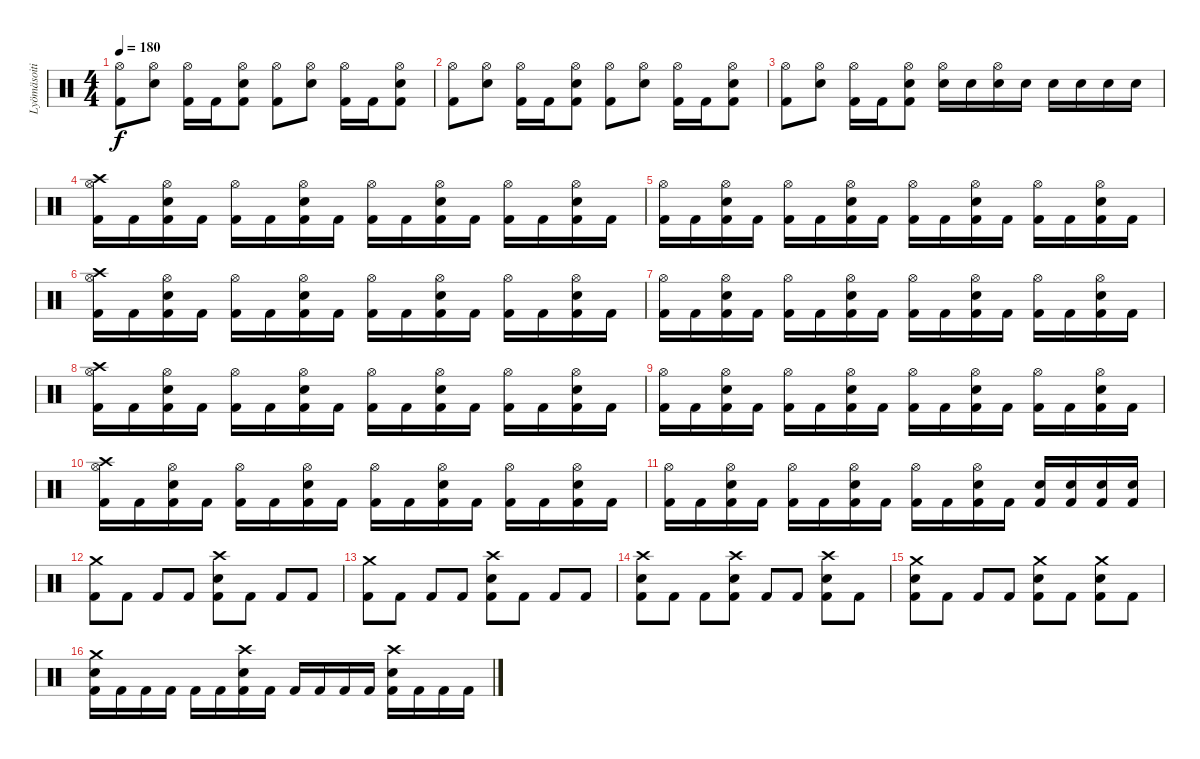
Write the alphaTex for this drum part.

\track ("Lyömäsoitin" "Lyömäsoiti") {instrument percussion}
\staff {score}
\articulation defaults
\ts (4 4)
\tempo 180
\clef neutral
\ks c
("Kick (hit) 2" "Hi-Hat (open)").8{dy f} ("Snare (hit) 2" "Hi-Hat (open)").8 ("Kick (hit) 2" "Hi-Hat (open)").16 "Kick (hit) 2".16 ("Kick (hit) 2" "Snare (hit) 2" "Hi-Hat (open)").8 ("Kick (hit) 2" "Hi-Hat (open)").8 ("Snare (hit) 2" "Hi-Hat (open)").8 ("Kick (hit) 2" "Hi-Hat (open)").16 "Kick (hit) 2".16 ("Kick (hit) 2" "Snare (hit) 2" "Hi-Hat (open)").8 |
("Kick (hit) 2" "Hi-Hat (open)").8 ("Snare (hit) 2" "Hi-Hat (open)").8 ("Kick (hit) 2" "Hi-Hat (open)").16 "Kick (hit) 2".16 ("Kick (hit) 2" "Snare (hit) 2" "Hi-Hat (open)").8 ("Kick (hit) 2" "Hi-Hat (open)").8 ("Snare (hit) 2" "Hi-Hat (open)").8 ("Kick (hit) 2" "Hi-Hat (open)").16 "Kick (hit) 2".16 ("Kick (hit) 2" "Snare (hit) 2" "Hi-Hat (open)").8 |
("Kick (hit) 2" "Hi-Hat (open)").8 ("Snare (hit) 2" "Hi-Hat (open)").8 ("Kick (hit) 2" "Hi-Hat (open)").16 "Kick (hit) 2".16 ("Kick (hit) 2" "Snare (hit) 2" "Hi-Hat (open)").8 ("Snare (hit) 2" "Hi-Hat (open)").16 "Snare (hit) 2".16 ("Snare (hit) 2" "Hi-Hat (open)").16 "Snare (hit) 2".16 "Snare (hit) 2".16 "Snare (hit) 2".16 "Snare (hit) 2".16 "Snare (hit) 2".16 |
("Kick (hit) 2" "Crash high (hit)" "Hi-Hat (open)").16 "Kick (hit) 2".16 ("Kick (hit) 2" "Snare (hit) 2" "Hi-Hat (open)").16 "Kick (hit) 2".16 ("Kick (hit) 2" "Hi-Hat (open)").16 "Kick (hit) 2".16 ("Kick (hit) 2" "Snare (hit) 2" "Hi-Hat (open)").16 "Kick (hit) 2".16 ("Kick (hit) 2" "Hi-Hat (open)").16 "Kick (hit) 2".16 ("Kick (hit) 2" "Snare (hit) 2" "Hi-Hat (open)").16 "Kick (hit) 2".16 ("Kick (hit) 2" "Hi-Hat (open)").16 "Kick (hit) 2".16 ("Kick (hit) 2" "Snare (hit) 2" "Hi-Hat (open)").16 "Kick (hit) 2".16 |
("Kick (hit) 2" "Hi-Hat (open)").16 "Kick (hit) 2".16 ("Kick (hit) 2" "Snare (hit) 2" "Hi-Hat (open)").16 "Kick (hit) 2".16 ("Kick (hit) 2" "Hi-Hat (open)").16 "Kick (hit) 2".16 ("Kick (hit) 2" "Snare (hit) 2" "Hi-Hat (open)").16 "Kick (hit) 2".16 ("Kick (hit) 2" "Hi-Hat (open)").16 "Kick (hit) 2".16 ("Kick (hit) 2" "Snare (hit) 2" "Hi-Hat (open)").16 "Kick (hit) 2".16 ("Kick (hit) 2" "Hi-Hat (open)").16 "Kick (hit) 2".16 ("Kick (hit) 2" "Snare (hit) 2" "Hi-Hat (open)").16 "Kick (hit) 2".16 |
("Kick (hit) 2" "Crash high (hit)" "Hi-Hat (open)").16 "Kick (hit) 2".16 ("Kick (hit) 2" "Snare (hit) 2" "Hi-Hat (open)").16 "Kick (hit) 2".16 ("Kick (hit) 2" "Hi-Hat (open)").16 "Kick (hit) 2".16 ("Kick (hit) 2" "Snare (hit) 2" "Hi-Hat (open)").16 "Kick (hit) 2".16 ("Kick (hit) 2" "Hi-Hat (open)").16 "Kick (hit) 2".16 ("Kick (hit) 2" "Snare (hit) 2" "Hi-Hat (open)").16 "Kick (hit) 2".16 ("Kick (hit) 2" "Hi-Hat (open)").16 "Kick (hit) 2".16 ("Kick (hit) 2" "Snare (hit) 2" "Hi-Hat (open)").16 "Kick (hit) 2".16 |
("Kick (hit) 2" "Hi-Hat (open)").16 "Kick (hit) 2".16 ("Kick (hit) 2" "Snare (hit) 2" "Hi-Hat (open)").16 "Kick (hit) 2".16 ("Kick (hit) 2" "Hi-Hat (open)").16 "Kick (hit) 2".16 ("Kick (hit) 2" "Snare (hit) 2" "Hi-Hat (open)").16 "Kick (hit) 2".16 ("Kick (hit) 2" "Hi-Hat (open)").16 "Kick (hit) 2".16 ("Kick (hit) 2" "Snare (hit) 2" "Hi-Hat (open)").16 "Kick (hit) 2".16 ("Kick (hit) 2" "Hi-Hat (open)").16 "Kick (hit) 2".16 ("Kick (hit) 2" "Snare (hit) 2" "Hi-Hat (open)").16 "Kick (hit) 2".16 |
("Kick (hit) 2" "Crash high (hit)" "Hi-Hat (open)").16 "Kick (hit) 2".16 ("Kick (hit) 2" "Snare (hit) 2" "Hi-Hat (open)").16 "Kick (hit) 2".16 ("Kick (hit) 2" "Hi-Hat (open)").16 "Kick (hit) 2".16 ("Kick (hit) 2" "Snare (hit) 2" "Hi-Hat (open)").16 "Kick (hit) 2".16 ("Kick (hit) 2" "Hi-Hat (open)").16 "Kick (hit) 2".16 ("Kick (hit) 2" "Snare (hit) 2" "Hi-Hat (open)").16 "Kick (hit) 2".16 ("Kick (hit) 2" "Hi-Hat (open)").16 "Kick (hit) 2".16 ("Kick (hit) 2" "Snare (hit) 2" "Hi-Hat (open)").16 "Kick (hit) 2".16 |
("Kick (hit) 2" "Hi-Hat (open)").16 "Kick (hit) 2".16 ("Kick (hit) 2" "Snare (hit) 2" "Hi-Hat (open)").16 "Kick (hit) 2".16 ("Kick (hit) 2" "Hi-Hat (open)").16 "Kick (hit) 2".16 ("Kick (hit) 2" "Snare (hit) 2" "Hi-Hat (open)").16 "Kick (hit) 2".16 ("Kick (hit) 2" "Hi-Hat (open)").16 "Kick (hit) 2".16 ("Kick (hit) 2" "Snare (hit) 2" "Hi-Hat (open)").16 "Kick (hit) 2".16 ("Kick (hit) 2" "Hi-Hat (open)").16 "Kick (hit) 2".16 ("Kick (hit) 2" "Snare (hit) 2" "Hi-Hat (open)").16 "Kick (hit) 2".16 |
("Kick (hit) 2" "Crash high (hit)" "Hi-Hat (open)").16 "Kick (hit) 2".16 ("Kick (hit) 2" "Snare (hit) 2" "Hi-Hat (open)").16 "Kick (hit) 2".16 ("Kick (hit) 2" "Hi-Hat (open)").16 "Kick (hit) 2".16 ("Kick (hit) 2" "Snare (hit) 2" "Hi-Hat (open)").16 "Kick (hit) 2".16 ("Kick (hit) 2" "Hi-Hat (open)").16 "Kick (hit) 2".16 ("Kick (hit) 2" "Snare (hit) 2" "Hi-Hat (open)").16 "Kick (hit) 2".16 ("Kick (hit) 2" "Hi-Hat (open)").16 "Kick (hit) 2".16 ("Kick (hit) 2" "Snare (hit) 2" "Hi-Hat (open)").16 "Kick (hit) 2".16 |
("Kick (hit) 2" "Hi-Hat (open)").16 "Kick (hit) 2".16 ("Kick (hit) 2" "Snare (hit) 2" "Hi-Hat (open)").16 "Kick (hit) 2".16 ("Kick (hit) 2" "Hi-Hat (open)").16 "Kick (hit) 2".16 ("Kick (hit) 2" "Snare (hit) 2" "Hi-Hat (open)").16 "Kick (hit) 2".16 ("Kick (hit) 2" "Hi-Hat (open)").16 "Kick (hit) 2".16 ("Kick (hit) 2" "Snare (hit) 2" "Hi-Hat (open)").16 "Kick (hit) 2".16 ("Kick (hit) 2" "Snare (hit) 2").16 ("Kick (hit) 2" "Snare (hit) 2").16 ("Kick (hit) 2" "Snare (hit) 2").16 ("Kick (hit) 2" "Snare (hit) 2").16 |
("Kick (hit) 2" "Crash medium (hit)").8 "Kick (hit) 2".8 "Kick (hit) 2".8 "Kick (hit) 2".8 ("Kick (hit) 2" "Snare (hit) 2" "Crash high (hit)").8 "Kick (hit) 2".8 "Kick (hit) 2".8 "Kick (hit) 2".8 |
("Kick (hit) 2" "Crash medium (hit)").8 "Kick (hit) 2".8 "Kick (hit) 2".8 "Kick (hit) 2".8 ("Kick (hit) 2" "Snare (hit) 2" "Crash high (hit)").8 "Kick (hit) 2".8 "Kick (hit) 2".8 "Kick (hit) 2".8 |
("Kick (hit) 2" "Snare (hit) 2" "Crash high (hit)").8 "Kick (hit) 2".8 "Kick (hit) 2".8 ("Kick (hit) 2" "Snare (hit) 2" "Crash high (hit)").8 "Kick (hit) 2".8 "Kick (hit) 2".8 ("Kick (hit) 2" "Snare (hit) 2" "Crash high (hit)").8 "Kick (hit) 2".8 |
("Kick (hit) 2" "Snare (hit) 2" "Crash medium (hit)").8 "Kick (hit) 2".8 "Kick (hit) 2".8 "Kick (hit) 2".8 ("Kick (hit) 2" "Snare (hit) 2" "Crash medium (hit)").8 "Kick (hit) 2".8 ("Kick (hit) 2" "Snare (hit) 2" "Crash medium (hit)").8 "Kick (hit) 2".8 |
("Kick (hit) 2" "Snare (hit) 2" "Crash medium (hit)").16 "Kick (hit) 2".16 "Kick (hit) 2".16 "Kick (hit) 2".16 "Kick (hit) 2".16 "Kick (hit) 2".16 ("Kick (hit) 2" "Snare (hit) 2" "Crash high (hit)").16 "Kick (hit) 2".16 "Kick (hit) 2".16 "Kick (hit) 2".16 "Kick (hit) 2".16 "Kick (hit) 2".16 ("Kick (hit) 2" "Snare (hit) 2" "Crash high (hit)").16 "Kick (hit) 2".16 "Kick (hit) 2".16 "Kick (hit) 2".16
